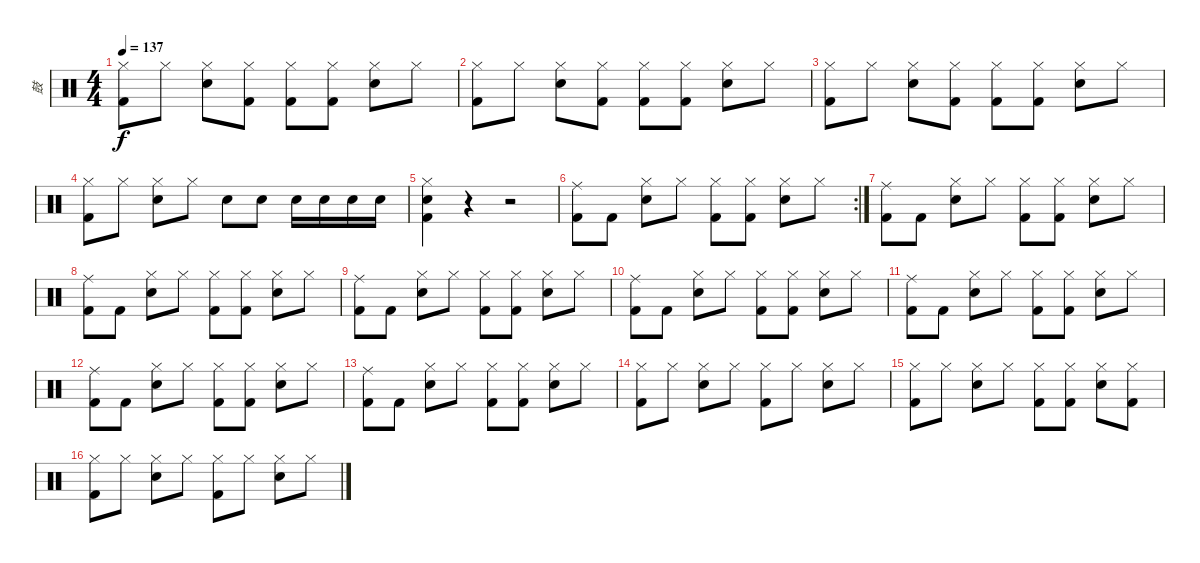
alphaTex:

\track ("鼓" "鼓") {instrument percussion}
\staff {score}
\articulation defaults
\ts (4 4)
\tempo 137
\clef neutral
\ks c
("Hi-Hat (closed)" "Kick (hit) 2").8{dy f} "Hi-Hat (closed)".8 ("Hi-Hat (closed)" "Snare (hit) 2").8 ("Hi-Hat (closed)" "Kick (hit) 2").8 ("Hi-Hat (closed)" "Kick (hit) 2").8 ("Hi-Hat (closed)" "Kick (hit) 2").8 ("Hi-Hat (closed)" "Snare (hit) 2").8 "Hi-Hat (closed)".8 |
("Hi-Hat (closed)" "Kick (hit) 2").8 "Hi-Hat (closed)".8 ("Hi-Hat (closed)" "Snare (hit) 2").8 ("Hi-Hat (closed)" "Kick (hit) 2").8 ("Hi-Hat (closed)" "Kick (hit) 2").8 ("Hi-Hat (closed)" "Kick (hit) 2").8 ("Hi-Hat (closed)" "Snare (hit) 2").8 "Hi-Hat (closed)".8 |
("Hi-Hat (closed)" "Kick (hit) 2").8 "Hi-Hat (closed)".8 ("Hi-Hat (closed)" "Snare (hit) 2").8 ("Hi-Hat (closed)" "Kick (hit) 2").8 ("Hi-Hat (closed)" "Kick (hit) 2").8 ("Hi-Hat (closed)" "Kick (hit) 2").8 ("Hi-Hat (closed)" "Snare (hit) 2").8 "Hi-Hat (closed)".8 |
("Hi-Hat (closed)" "Kick (hit) 2").8 "Hi-Hat (closed)".8 ("Hi-Hat (closed)" "Snare (hit) 2").8 "Hi-Hat (closed)".8 "Snare (hit) 2".8 "Snare (hit) 2".8 "Snare (hit) 2".16 "Snare (hit) 2".16 "Snare (hit) 2".16 "Snare (hit) 2".16 |
("Hi-Hat (closed)" "Snare (hit) 2" "Kick (hit) 2").4 r.4 r.2 |
\rc 2
("Ride (middle)" "Kick (hit) 2").8 "Kick (hit) 2".8 ("Hi-Hat (closed)" "Snare (hit) 2").8 "Hi-Hat (closed)".8 ("Hi-Hat (closed)" "Kick (hit) 2").8 ("Hi-Hat (closed)" "Kick (hit) 2").8 ("Hi-Hat (closed)" "Snare (hit) 2").8 "Hi-Hat (closed)".8 |
("Ride (middle)" "Kick (hit) 2").8 "Kick (hit) 2".8 ("Hi-Hat (closed)" "Snare (hit) 2").8 "Hi-Hat (closed)".8 ("Hi-Hat (closed)" "Kick (hit) 2").8 ("Hi-Hat (closed)" "Kick (hit) 2").8 ("Hi-Hat (closed)" "Snare (hit) 2").8 "Hi-Hat (closed)".8 |
("Ride (middle)" "Kick (hit) 2").8 "Kick (hit) 2".8 ("Hi-Hat (closed)" "Snare (hit) 2").8 "Hi-Hat (closed)".8 ("Hi-Hat (closed)" "Kick (hit) 2").8 ("Hi-Hat (closed)" "Kick (hit) 2").8 ("Hi-Hat (closed)" "Snare (hit) 2").8 "Hi-Hat (closed)".8 |
("Ride (middle)" "Kick (hit) 2").8 "Kick (hit) 2".8 ("Hi-Hat (closed)" "Snare (hit) 2").8 "Hi-Hat (closed)".8 ("Hi-Hat (closed)" "Kick (hit) 2").8 ("Hi-Hat (closed)" "Kick (hit) 2").8 ("Hi-Hat (closed)" "Snare (hit) 2").8 "Hi-Hat (closed)".8 |
("Ride (middle)" "Kick (hit) 2").8 "Kick (hit) 2".8 ("Hi-Hat (closed)" "Snare (hit) 2").8 "Hi-Hat (closed)".8 ("Hi-Hat (closed)" "Kick (hit) 2").8 ("Hi-Hat (closed)" "Kick (hit) 2").8 ("Hi-Hat (closed)" "Snare (hit) 2").8 "Hi-Hat (closed)".8 |
("Ride (middle)" "Kick (hit) 2").8 "Kick (hit) 2".8 ("Hi-Hat (closed)" "Snare (hit) 2").8 "Hi-Hat (closed)".8 ("Hi-Hat (closed)" "Kick (hit) 2").8 ("Hi-Hat (closed)" "Kick (hit) 2").8 ("Hi-Hat (closed)" "Snare (hit) 2").8 "Hi-Hat (closed)".8 |
("Ride (middle)" "Kick (hit) 2").8 "Kick (hit) 2".8 ("Hi-Hat (closed)" "Snare (hit) 2").8 "Hi-Hat (closed)".8 ("Hi-Hat (closed)" "Kick (hit) 2").8 ("Hi-Hat (closed)" "Kick (hit) 2").8 ("Hi-Hat (closed)" "Snare (hit) 2").8 "Hi-Hat (closed)".8 |
("Ride (middle)" "Kick (hit) 2").8 "Kick (hit) 2".8 ("Hi-Hat (closed)" "Snare (hit) 2").8 "Hi-Hat (closed)".8 ("Hi-Hat (closed)" "Kick (hit) 2").8 ("Hi-Hat (closed)" "Kick (hit) 2").8 ("Hi-Hat (closed)" "Snare (hit) 2").8 "Hi-Hat (closed)".8 |
("Hi-Hat (closed)" "Kick (hit) 2").8 "Hi-Hat (closed)".8 ("Hi-Hat (closed)" "Snare (hit) 2").8 "Hi-Hat (closed)".8 ("Hi-Hat (closed)" "Kick (hit) 2").8 "Hi-Hat (closed)".8 ("Hi-Hat (closed)" "Snare (hit) 2").8 "Hi-Hat (closed)".8 |
("Hi-Hat (closed)" "Kick (hit) 2").8 "Hi-Hat (closed)".8 ("Hi-Hat (closed)" "Snare (hit) 2").8 "Hi-Hat (closed)".8 ("Hi-Hat (closed)" "Kick (hit) 2").8 ("Hi-Hat (closed)" "Kick (hit) 2").8 ("Hi-Hat (closed)" "Snare (hit) 2").8 ("Hi-Hat (closed)" "Kick (hit) 2").8 |
("Hi-Hat (closed)" "Kick (hit) 2").8 "Hi-Hat (closed)".8 ("Hi-Hat (closed)" "Snare (hit) 2").8 "Hi-Hat (closed)".8 ("Hi-Hat (closed)" "Kick (hit) 2").8 "Hi-Hat (closed)".8 ("Hi-Hat (closed)" "Snare (hit) 2").8 "Hi-Hat (closed)".8
